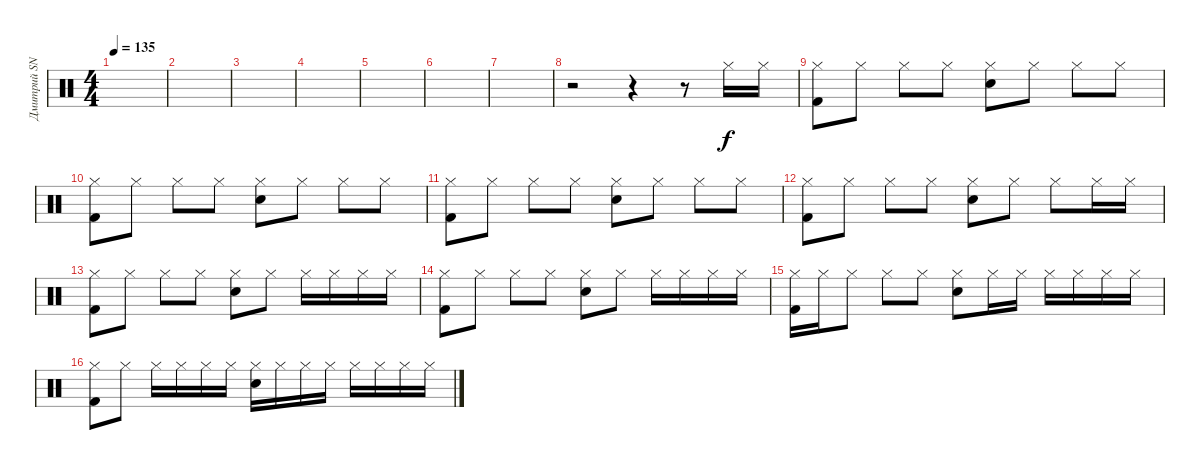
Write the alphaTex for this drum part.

\track ("Дмитрий SNAKE Хакимов" "Дмитрий SN") {instrument percussion}
\staff {score}
\articulation defaults
\ts (4 4)
\tempo 135
\clef neutral
\ks c
|
|
|
|
|
|
|
r.2 r.4 r.8 "Hi-Hat (closed)".16 "Hi-Hat (closed)".16 |
("Hi-Hat (closed)" "Kick (hit) 2").8 "Hi-Hat (closed)".8 "Hi-Hat (closed)".8 "Hi-Hat (closed)".8 ("Hi-Hat (closed)" "Electric Snare (hit)").8 "Hi-Hat (closed)".8 "Hi-Hat (closed)".8 "Hi-Hat (closed)".8 |
("Hi-Hat (closed)" "Kick (hit) 2").8 "Hi-Hat (closed)".8 "Hi-Hat (closed)".8 "Hi-Hat (closed)".8 ("Hi-Hat (closed)" "Electric Snare (hit)").8 "Hi-Hat (closed)".8 "Hi-Hat (closed)".8 "Hi-Hat (closed)".8 |
("Hi-Hat (closed)" "Kick (hit) 2").8 "Hi-Hat (closed)".8 "Hi-Hat (closed)".8 "Hi-Hat (closed)".8 ("Hi-Hat (closed)" "Electric Snare (hit)").8 "Hi-Hat (closed)".8 "Hi-Hat (closed)".8 "Hi-Hat (closed)".8 |
("Hi-Hat (closed)" "Kick (hit) 2").8 "Hi-Hat (closed)".8 "Hi-Hat (closed)".8 "Hi-Hat (closed)".8 ("Hi-Hat (closed)" "Electric Snare (hit)").8 "Hi-Hat (closed)".8 "Hi-Hat (closed)".8 "Hi-Hat (closed)".16 "Hi-Hat (closed)".16 |
("Hi-Hat (closed)" "Kick (hit) 2").8 "Hi-Hat (closed)".8 "Hi-Hat (closed)".8 "Hi-Hat (closed)".8 ("Hi-Hat (closed)" "Electric Snare (hit)").8 "Hi-Hat (closed)".8 "Hi-Hat (closed)".16 "Hi-Hat (closed)".16 "Hi-Hat (closed)".16 "Hi-Hat (closed)".16 |
("Hi-Hat (closed)" "Kick (hit) 2").8 "Hi-Hat (closed)".8 "Hi-Hat (closed)".8 "Hi-Hat (closed)".8 ("Hi-Hat (closed)" "Electric Snare (hit)").8 "Hi-Hat (closed)".8 "Hi-Hat (closed)".16 "Hi-Hat (closed)".16 "Hi-Hat (closed)".16 "Hi-Hat (closed)".16 |
("Hi-Hat (closed)" "Kick (hit) 2").16 "Hi-Hat (closed)".16 "Hi-Hat (closed)".8 "Hi-Hat (closed)".8 "Hi-Hat (closed)".8 ("Hi-Hat (closed)" "Electric Snare (hit)").8 "Hi-Hat (closed)".16 "Hi-Hat (closed)".16 "Hi-Hat (closed)".16 "Hi-Hat (closed)".16 "Hi-Hat (closed)".16 "Hi-Hat (closed)".16 |
("Hi-Hat (closed)" "Kick (hit) 2").8 "Hi-Hat (closed)".8 "Hi-Hat (closed)".16 "Hi-Hat (closed)".16 "Hi-Hat (closed)".16 "Hi-Hat (closed)".16 ("Hi-Hat (closed)" "Electric Snare (hit)").16 "Hi-Hat (closed)".16 "Hi-Hat (closed)".16 "Hi-Hat (closed)".16 "Hi-Hat (closed)".16 "Hi-Hat (closed)".16 "Hi-Hat (closed)".16 "Hi-Hat (closed)".16
